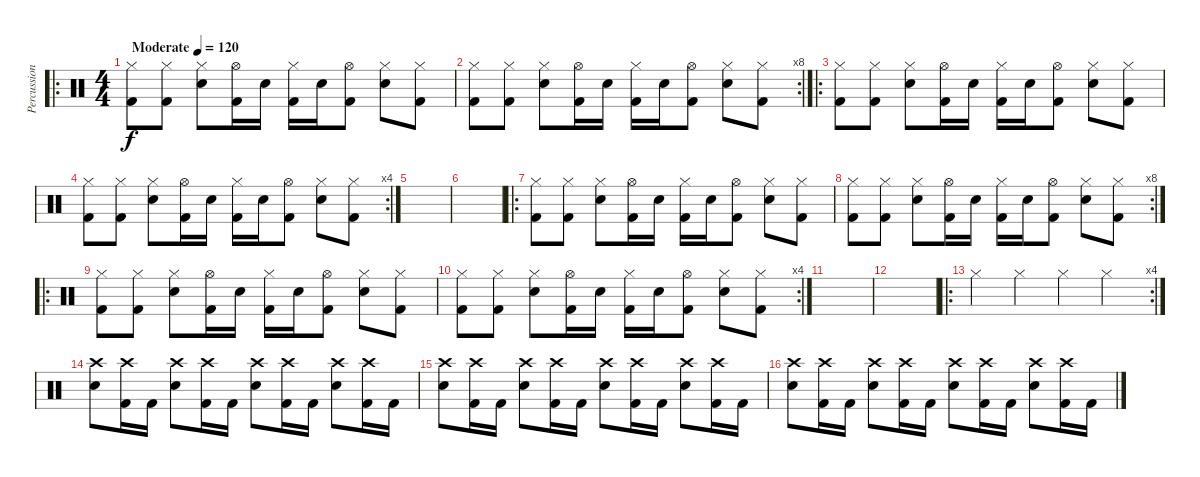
\track ("Percussion" "Percussion") {instrument percussion}
\staff {score}
\articulation defaults
\ro
\ts (4 4)
\tempo (120 "Moderate")
\clef neutral
\ks c
("Hi-Hat (closed)" "Kick (hit) 2").8{dy f} ("Hi-Hat (closed)" "Kick (hit) 2").8 ("Hi-Hat (closed)" "Snare (hit) 2").8 ("Hi-Hat (open)" "Kick (hit) 2").16 "Snare (hit) 2".16 ("Hi-Hat (closed)" "Kick (hit) 2").16 "Snare (hit) 2".16 ("Hi-Hat (open)" "Kick (hit) 2").8 ("Hi-Hat (closed)" "Snare (hit) 2").8 ("Hi-Hat (closed)" "Kick (hit) 2").8 |
\rc 8
("Hi-Hat (closed)" "Kick (hit) 2").8 ("Hi-Hat (closed)" "Kick (hit) 2").8 ("Hi-Hat (closed)" "Snare (hit) 2").8 ("Hi-Hat (open)" "Kick (hit) 2").16 "Snare (hit) 2".16 ("Hi-Hat (closed)" "Kick (hit) 2").16 "Snare (hit) 2".16 ("Hi-Hat (open)" "Kick (hit) 2").8 ("Hi-Hat (closed)" "Snare (hit) 2").8 ("Hi-Hat (closed)" "Kick (hit) 2").8 |
\ro
("Hi-Hat (closed)" "Kick (hit) 2").8 ("Hi-Hat (closed)" "Kick (hit) 2").8 ("Hi-Hat (closed)" "Snare (hit) 2").8 ("Hi-Hat (open)" "Kick (hit) 2").16 "Snare (hit) 2".16 ("Hi-Hat (closed)" "Kick (hit) 2").16 "Snare (hit) 2".16 ("Hi-Hat (open)" "Kick (hit) 2").8 ("Hi-Hat (closed)" "Snare (hit) 2").8 ("Hi-Hat (closed)" "Kick (hit) 2").8 |
\rc 4
("Hi-Hat (closed)" "Kick (hit) 2").8 ("Hi-Hat (closed)" "Kick (hit) 2").8 ("Hi-Hat (closed)" "Snare (hit) 2").8 ("Hi-Hat (open)" "Kick (hit) 2").16 "Snare (hit) 2".16 ("Hi-Hat (closed)" "Kick (hit) 2").16 "Snare (hit) 2".16 ("Hi-Hat (open)" "Kick (hit) 2").8 ("Hi-Hat (closed)" "Snare (hit) 2").8 ("Hi-Hat (closed)" "Kick (hit) 2").8 |
|
|
\ro
("Hi-Hat (closed)" "Kick (hit) 2").8 ("Hi-Hat (closed)" "Kick (hit) 2").8 ("Hi-Hat (closed)" "Snare (hit) 2").8 ("Hi-Hat (open)" "Kick (hit) 2").16 "Snare (hit) 2".16 ("Hi-Hat (closed)" "Kick (hit) 2").16 "Snare (hit) 2".16 ("Hi-Hat (open)" "Kick (hit) 2").8 ("Hi-Hat (closed)" "Snare (hit) 2").8 ("Hi-Hat (closed)" "Kick (hit) 2").8 |
\rc 8
("Hi-Hat (closed)" "Kick (hit) 2").8 ("Hi-Hat (closed)" "Kick (hit) 2").8 ("Hi-Hat (closed)" "Snare (hit) 2").8 ("Hi-Hat (open)" "Kick (hit) 2").16 "Snare (hit) 2".16 ("Hi-Hat (closed)" "Kick (hit) 2").16 "Snare (hit) 2".16 ("Hi-Hat (open)" "Kick (hit) 2").8 ("Hi-Hat (closed)" "Snare (hit) 2").8 ("Hi-Hat (closed)" "Kick (hit) 2").8 |
\ro
("Hi-Hat (closed)" "Kick (hit) 2").8 ("Hi-Hat (closed)" "Kick (hit) 2").8 ("Hi-Hat (closed)" "Snare (hit) 2").8 ("Hi-Hat (open)" "Kick (hit) 2").16 "Snare (hit) 2".16 ("Hi-Hat (closed)" "Kick (hit) 2").16 "Snare (hit) 2".16 ("Hi-Hat (open)" "Kick (hit) 2").8 ("Hi-Hat (closed)" "Snare (hit) 2").8 ("Hi-Hat (closed)" "Kick (hit) 2").8 |
\rc 4
("Hi-Hat (closed)" "Kick (hit) 2").8 ("Hi-Hat (closed)" "Kick (hit) 2").8 ("Hi-Hat (closed)" "Snare (hit) 2").8 ("Hi-Hat (open)" "Kick (hit) 2").16 "Snare (hit) 2".16 ("Hi-Hat (closed)" "Kick (hit) 2").16 "Snare (hit) 2".16 ("Hi-Hat (open)" "Kick (hit) 2").8 ("Hi-Hat (closed)" "Snare (hit) 2").8 ("Hi-Hat (closed)" "Kick (hit) 2").8 |
|
|
\ro
\rc 4 "Hi-Hat (closed)".4 "Hi-Hat (closed)".4 "Hi-Hat (closed)".4 "Hi-Hat (closed)".4
|
("Crash high (hit)" "Snare (hit) 2").8 ("Crash high (hit)" "Kick (hit) 2").16 "Kick (hit) 2".16 ("Crash high (hit)" "Snare (hit) 2").8 ("Crash high (hit)" "Kick (hit) 2").16 "Kick (hit) 2".16 ("Crash high (hit)" "Snare (hit) 2").8 ("Crash high (hit)" "Kick (hit) 2").16 "Kick (hit) 2".16 ("Crash high (hit)" "Snare (hit) 2").8 ("Crash high (hit)" "Kick (hit) 2").16 "Kick (hit) 2".16 |
("Crash high (hit)" "Snare (hit) 2").8 ("Crash high (hit)" "Kick (hit) 2").16 "Kick (hit) 2".16 ("Crash high (hit)" "Snare (hit) 2").8 ("Crash high (hit)" "Kick (hit) 2").16 "Kick (hit) 2".16 ("Crash high (hit)" "Snare (hit) 2").8 ("Crash high (hit)" "Kick (hit) 2").16 "Kick (hit) 2".16 ("Crash high (hit)" "Snare (hit) 2").8 ("Crash high (hit)" "Kick (hit) 2").16 "Kick (hit) 2".16 |
("Crash high (hit)" "Snare (hit) 2").8 ("Crash high (hit)" "Kick (hit) 2").16 "Kick (hit) 2".16 ("Crash high (hit)" "Snare (hit) 2").8 ("Crash high (hit)" "Kick (hit) 2").16 "Kick (hit) 2".16 ("Crash high (hit)" "Snare (hit) 2").8 ("Crash high (hit)" "Kick (hit) 2").16 "Kick (hit) 2".16 ("Crash high (hit)" "Snare (hit) 2").8 ("Crash high (hit)" "Kick (hit) 2").16 "Kick (hit) 2".16
